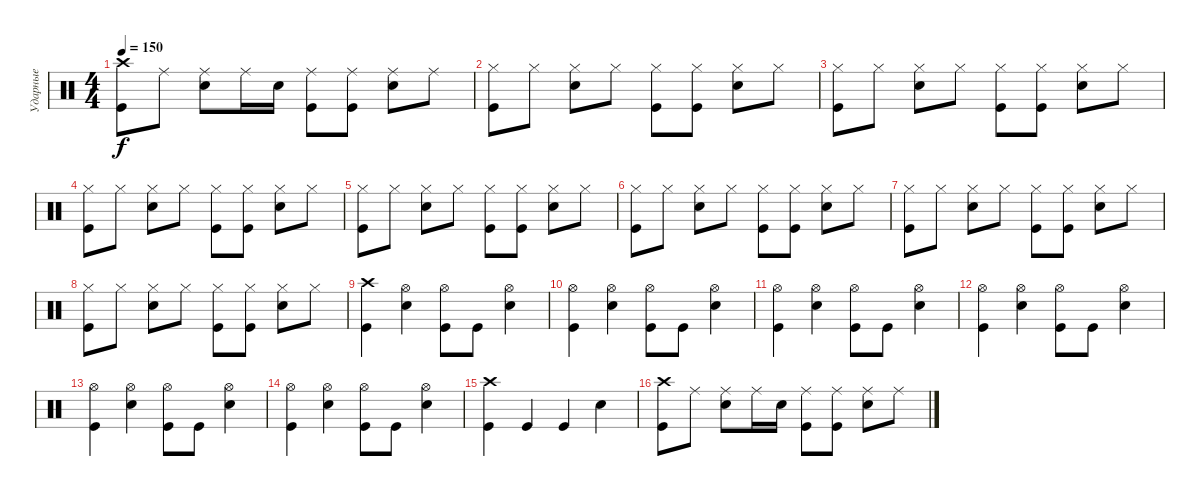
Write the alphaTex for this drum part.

\track ("Ударные" "Ударные") {instrument percussion}
\staff {score}
\articulation defaults
\ts (4 4)
\tempo 150
\clef neutral
\ks c
("Crash high (hit)" "Kick (hit)").8{dy f} "Ride (middle)".8 ("Ride (middle)" "Snare (hit) 2").8 "Ride (middle)".16 "Snare (hit) 2".16 ("Ride (middle)" "Kick (hit)").8 ("Ride (middle)" "Kick (hit)").8 ("Ride (middle)" "Snare (hit) 2").8 "Ride (middle)".8 |
("Hi-Hat (closed)" "Kick (hit)").8 "Hi-Hat (closed)".8 ("Hi-Hat (closed)" "Snare (hit) 2").8 "Hi-Hat (closed)".8 ("Hi-Hat (closed)" "Kick (hit)").8 ("Hi-Hat (closed)" "Kick (hit)").8 ("Hi-Hat (closed)" "Snare (hit) 2").8 "Hi-Hat (closed)".8 |
("Hi-Hat (closed)" "Kick (hit)").8 "Hi-Hat (closed)".8 ("Hi-Hat (closed)" "Snare (hit) 2").8 "Hi-Hat (closed)".8 ("Hi-Hat (closed)" "Kick (hit)").8 ("Hi-Hat (closed)" "Kick (hit)").8 ("Hi-Hat (closed)" "Snare (hit) 2").8 "Hi-Hat (closed)".8 |
("Hi-Hat (closed)" "Kick (hit)").8 "Hi-Hat (closed)".8 ("Hi-Hat (closed)" "Snare (hit) 2").8 "Hi-Hat (closed)".8 ("Hi-Hat (closed)" "Kick (hit)").8 ("Hi-Hat (closed)" "Kick (hit)").8 ("Hi-Hat (closed)" "Snare (hit) 2").8 "Hi-Hat (closed)".8 |
("Hi-Hat (closed)" "Kick (hit)").8 "Hi-Hat (closed)".8 ("Hi-Hat (closed)" "Snare (hit) 2").8 "Hi-Hat (closed)".8 ("Hi-Hat (closed)" "Kick (hit)").8 ("Hi-Hat (closed)" "Kick (hit)").8 ("Hi-Hat (closed)" "Snare (hit) 2").8 "Hi-Hat (closed)".8 |
("Hi-Hat (closed)" "Kick (hit)").8 "Hi-Hat (closed)".8 ("Hi-Hat (closed)" "Snare (hit) 2").8 "Hi-Hat (closed)".8 ("Hi-Hat (closed)" "Kick (hit)").8 ("Hi-Hat (closed)" "Kick (hit)").8 ("Hi-Hat (closed)" "Snare (hit) 2").8 "Hi-Hat (closed)".8 |
("Hi-Hat (closed)" "Kick (hit)").8 "Hi-Hat (closed)".8 ("Hi-Hat (closed)" "Snare (hit) 2").8 "Hi-Hat (closed)".8 ("Hi-Hat (closed)" "Kick (hit)").8 ("Hi-Hat (closed)" "Kick (hit)").8 ("Hi-Hat (closed)" "Snare (hit) 2").8 "Hi-Hat (closed)".8 |
("Hi-Hat (closed)" "Kick (hit)").8 "Hi-Hat (closed)".8 ("Hi-Hat (closed)" "Snare (hit) 2").8 "Hi-Hat (closed)".8 ("Hi-Hat (closed)" "Kick (hit)").8 ("Hi-Hat (closed)" "Kick (hit)").8 ("Hi-Hat (closed)" "Snare (hit) 2").8 "Hi-Hat (closed)".8 |
("Crash high (hit)" "Kick (hit)").4 ("Hi-Hat (open)" "Snare (hit) 2").4 ("Hi-Hat (open)" "Kick (hit)").8 "Kick (hit)".8 ("Hi-Hat (open)" "Snare (hit) 2").4 |
("Hi-Hat (open)" "Kick (hit)").4 ("Hi-Hat (open)" "Snare (hit) 2").4 ("Hi-Hat (open)" "Kick (hit)").8 "Kick (hit)".8 ("Hi-Hat (open)" "Snare (hit) 2").4 |
("Hi-Hat (open)" "Kick (hit)").4 ("Hi-Hat (open)" "Snare (hit) 2").4 ("Hi-Hat (open)" "Kick (hit)").8 "Kick (hit)".8 ("Hi-Hat (open)" "Snare (hit) 2").4 |
("Hi-Hat (open)" "Kick (hit)").4 ("Hi-Hat (open)" "Snare (hit) 2").4 ("Hi-Hat (open)" "Kick (hit)").8 "Kick (hit)".8 ("Hi-Hat (open)" "Snare (hit) 2").4 |
("Hi-Hat (open)" "Kick (hit)").4 ("Hi-Hat (open)" "Snare (hit) 2").4 ("Hi-Hat (open)" "Kick (hit)").8 "Kick (hit)".8 ("Hi-Hat (open)" "Snare (hit) 2").4 |
("Hi-Hat (open)" "Kick (hit)").4 ("Hi-Hat (open)" "Snare (hit) 2").4 ("Hi-Hat (open)" "Kick (hit)").8 "Kick (hit)".8 ("Hi-Hat (open)" "Snare (hit) 2").4 |
("Crash high (hit)" "Kick (hit)").4 "Kick (hit)".4 "Kick (hit)".4 "Snare (hit) 2".4 |
("Crash high (hit)" "Kick (hit)").8 "Ride (middle)".8 ("Ride (middle)" "Snare (hit) 2").8 "Ride (middle)".16 "Snare (hit) 2".16 ("Ride (middle)" "Kick (hit)").8 ("Ride (middle)" "Kick (hit)").8 ("Ride (middle)" "Snare (hit) 2").8 "Ride (middle)".8
